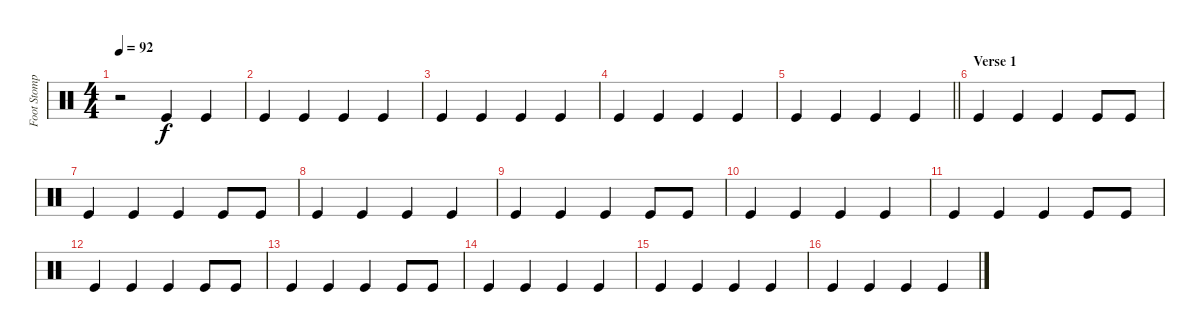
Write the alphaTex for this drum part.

\track ("Foot Stomp" "Foot Stomp") {instrument percussion}
\staff {score}
\articulation defaults
\ts (4 4)
\tempo 92
\clef neutral
\ks c
r.2{dy f} "Kick (hit)".4 "Kick (hit)".4 |
"Kick (hit)".4 "Kick (hit)".4 "Kick (hit)".4 "Kick (hit)".4 |
"Kick (hit)".4 "Kick (hit)".4 "Kick (hit)".4 "Kick (hit)".4 |
"Kick (hit)".4 "Kick (hit)".4 "Kick (hit)".4 "Kick (hit)".4 |
\barLineRight lightlight "Kick (hit)".4 "Kick (hit)".4 "Kick (hit)".4 "Kick (hit)".4
|
\section ("" "Verse 1")
"Kick (hit)".4 "Kick (hit)".4 "Kick (hit)".4 "Kick (hit)".8 "Kick (hit)".8 |
"Kick (hit)".4 "Kick (hit)".4 "Kick (hit)".4 "Kick (hit)".8 "Kick (hit)".8 |
"Kick (hit)".4 "Kick (hit)".4 "Kick (hit)".4 "Kick (hit)".4 |
"Kick (hit)".4 "Kick (hit)".4 "Kick (hit)".4 "Kick (hit)".8 "Kick (hit)".8 |
"Kick (hit)".4 "Kick (hit)".4 "Kick (hit)".4 "Kick (hit)".4 |
"Kick (hit)".4 "Kick (hit)".4 "Kick (hit)".4 "Kick (hit)".8 "Kick (hit)".8 |
"Kick (hit)".4 "Kick (hit)".4 "Kick (hit)".4 "Kick (hit)".8 "Kick (hit)".8 |
"Kick (hit)".4 "Kick (hit)".4 "Kick (hit)".4 "Kick (hit)".8 "Kick (hit)".8 |
"Kick (hit)".4 "Kick (hit)".4 "Kick (hit)".4 "Kick (hit)".4 |
"Kick (hit)".4 "Kick (hit)".4 "Kick (hit)".4 "Kick (hit)".4 |
"Kick (hit)".4 "Kick (hit)".4 "Kick (hit)".4 "Kick (hit)".4
